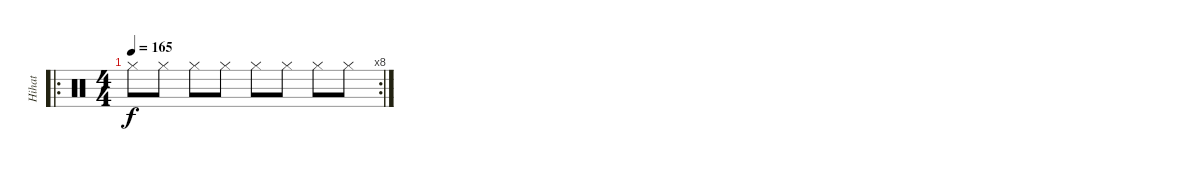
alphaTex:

\track ("Hihat" "Hihat") {instrument percussion}
\staff {score}
\articulation defaults
\ro
\rc 8
\ts (4 4)
\tempo 165
\clef neutral
\ks c "Hi-Hat (closed)".8{dy f} "Hi-Hat (closed)".8 "Hi-Hat (closed)".8 "Hi-Hat (closed)".8 "Hi-Hat (closed)".8 "Hi-Hat (closed)".8 "Hi-Hat (closed)".8 "Hi-Hat (closed)".8
